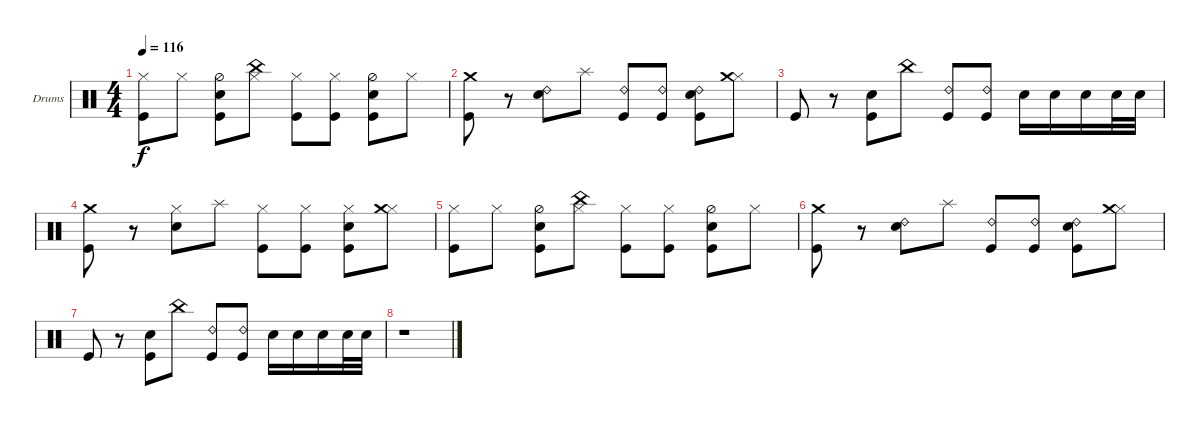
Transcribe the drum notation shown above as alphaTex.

\bracketExtendMode groupsimilarinstruments
\firstSystemTrackNameOrientation horizontal
\otherSystemsTrackNameOrientation horizontal
\track ("Mick Brown" "Drums") {instrument percussion}
\staff {score}
\articulation defaults
\ts (4 4)
\tempo 116
\clef neutral
\ks c
("Kick (hit)" "Hi-Hat (closed)").8{dy f} "Hi-Hat (closed)".8 ("Snare (hit) 2" "Kick (hit)" "Hi-Hat (half)").8 ("Hi-Hat (closed)" "China (hit)").8 ("Kick (hit)" "Hi-Hat (closed)").8 ("Kick (hit)" "Hi-Hat (closed)").8 ("Snare (hit) 2" "Kick (hit)" "Hi-Hat (half)").8 "Hi-Hat (closed)".8 |
("Kick (hit)" "Crash medium (hit)").8 r.8 ("Snare (hit) 2" "Ride (bell) 2").8 "Splash (hit)".8 ("Kick (hit)" "Ride (bell) 2").8 ("Kick (hit)" "Ride (bell) 2").8 ("Snare (hit) 2" "Kick (hit)" "Ride (bell) 2").8 ("Hi-Hat (closed)" "Crash medium (hit)").8 |
"Kick (hit)".8 r.8 ("Snare (hit) 2" "Kick (hit)").8 "China (hit)".8 ("Kick (hit)" "Ride (bell) 2").8 ("Kick (hit)" "Ride (bell) 2").8 "Snare (hit) 2".16 "Snare (hit) 2".16 "Snare (hit) 2".16 "Snare (hit) 2".32 "Snare (hit) 2".32 |
("Kick (hit)" "Crash medium (hit)").8 r.8 ("Snare (hit) 2" "Hi-Hat (closed)").8 "Splash (hit)".8 ("Kick (hit)" "Hi-Hat (closed)").8 ("Kick (hit)" "Hi-Hat (closed)").8 ("Snare (hit) 2" "Kick (hit)" "Hi-Hat (closed)").8 ("Hi-Hat (closed)" "Crash medium (hit)").8 |
("Kick (hit)" "Hi-Hat (closed)").8 "Hi-Hat (closed)".8 ("Snare (hit) 2" "Kick (hit)" "Hi-Hat (half)").8 ("Hi-Hat (closed)" "China (hit)").8 ("Kick (hit)" "Hi-Hat (closed)").8 ("Kick (hit)" "Hi-Hat (closed)").8 ("Snare (hit) 2" "Kick (hit)" "Hi-Hat (half)").8 "Hi-Hat (closed)".8 |
("Kick (hit)" "Crash medium (hit)").8 r.8 ("Snare (hit) 2" "Ride (bell) 2").8 "Splash (hit)".8 ("Kick (hit)" "Ride (bell) 2").8 ("Kick (hit)" "Ride (bell) 2").8 ("Snare (hit) 2" "Kick (hit)" "Ride (bell) 2").8 ("Hi-Hat (closed)" "Crash medium (hit)").8 |
"Kick (hit)".8 r.8 ("Snare (hit) 2" "Kick (hit)").8 "China (hit)".8 ("Kick (hit)" "Ride (bell) 2").8 ("Kick (hit)" "Ride (bell) 2").8 "Snare (hit) 2".16 "Snare (hit) 2".16 "Snare (hit) 2".16 "Snare (hit) 2".32 "Snare (hit) 2".32 |
r.1
